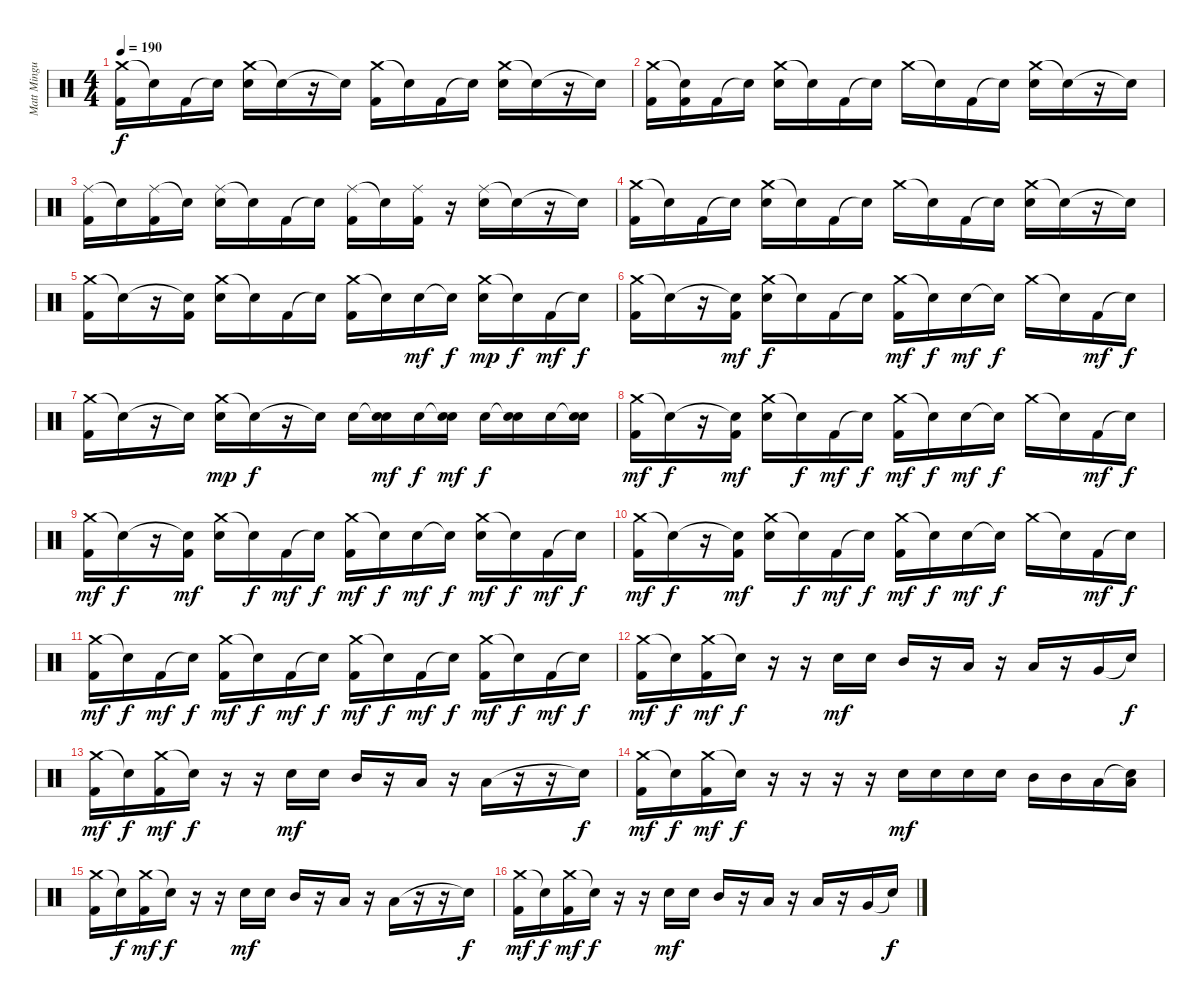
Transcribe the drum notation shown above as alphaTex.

\track ("Matt Mingus" "Matt Mingu") {instrument percussion}
\staff {score}
\articulation defaults
\ts (4 4)
\tempo 190
\clef neutral
\ks c
("Crash medium (hit)" "Kick (hit) 2").16{dy f} "Snare (hit)"{t}.16 "Kick (hit) 2".16 "Snare (hit)"{t}.16 ("Crash medium (hit)" "Electric Snare (hit)").16 "Snare (hit)"{t}.16 r.16 "Snare (hit)"{t}.16 ("Crash medium (hit)" "Kick (hit) 2").16 "Snare (hit)"{t}.16 "Kick (hit) 2".16 "Snare (hit)"{t}.16 ("Crash medium (hit)" "Electric Snare (hit)").16 "Snare (hit)"{t}.16 r.16 "Snare (hit)"{t}.16 |
("Crash medium (hit)" "Kick (hit) 2").16 ("Snare (hit)"{t} "Kick (hit) 2").16 "Kick (hit) 2".16 "Snare (hit)"{t}.16 ("Crash medium (hit)" "Electric Snare (hit)").16 "Snare (hit)"{t}.16 "Kick (hit) 2".16 "Snare (hit)"{t}.16 "Crash medium (hit)".16 "Snare (hit)"{t}.16 "Kick (hit) 2".16 "Snare (hit)"{t}.16 ("Crash medium (hit)" "Electric Snare (hit)").16 "Snare (hit)"{t}.16 r.16 "Snare (hit)"{t}.16 |
("Ride (middle)" "Kick (hit) 2").16 "Snare (hit)"{t}.16 ("Ride (middle)" "Kick (hit) 2").16 "Snare (hit)"{t}.16 ("Ride (middle)" "Electric Snare (hit)").16 "Snare (hit)"{t}.16 "Kick (hit) 2".16 "Snare (hit)"{t}.16 ("Ride (middle)" "Kick (hit) 2").16 "Snare (hit)"{t}.16 ("Ride (middle)" "Kick (hit) 2").16 r.16 ("Ride (middle)" "Electric Snare (hit)").16 "Snare (hit)"{t}.16 r.16 "Snare (hit)"{t}.16 |
("Crash medium (hit)" "Kick (hit) 2").16 "Snare (hit)"{t}.16 "Kick (hit) 2".16 "Snare (hit)"{t}.16 ("Crash medium (hit)" "Electric Snare (hit)").16 "Snare (hit)"{t}.16 "Kick (hit) 2".16 "Snare (hit)"{t}.16 "Crash medium (hit)".16 "Snare (hit)"{t}.16 "Kick (hit) 2".16 "Snare (hit)"{t}.16 ("Crash medium (hit)" "Electric Snare (hit)").16 "Snare (hit)"{t}.16 r.16 "Snare (hit)"{t}.16 |
("Crash medium (hit)" "Kick (hit) 2").16 "Snare (hit)"{t}.16 r.16 ("Snare (hit)"{t} "Kick (hit) 2").16 ("Crash medium (hit)" "Electric Snare (hit)").16 "Snare (hit)"{t}.16 "Kick (hit) 2".16 "Snare (hit)"{t}.16 ("Crash medium (hit)" "Kick (hit) 2").16 "Snare (hit)"{t}.16 "Electric Snare (hit)".16{dy mf} "Snare (hit)"{t}.16{dy f} ("Crash medium (hit)" "Electric Snare (hit)").16{dy mp} "Snare (hit)"{t}.16{dy f} "Kick (hit) 2".16{dy mf} "Snare (hit)"{t}.16{dy f} |
("Crash medium (hit)" "Kick (hit) 2").16 "Snare (hit)"{t}.16 r.16 ("Snare (hit)"{t} "Kick (hit) 2").16{dy mf} ("Crash medium (hit)" "Electric Snare (hit)").16{dy f} "Snare (hit)"{t}.16 "Kick (hit) 2".16 "Snare (hit)"{t}.16 ("Crash medium (hit)" "Kick (hit) 2").16{dy mf} "Snare (hit)"{t}.16{dy f} "Electric Snare (hit)".16{dy mf} "Snare (hit)"{t}.16{dy f} "Crash medium (hit)".16 "Snare (hit)"{t}.16 "Kick (hit) 2".16{dy mf} "Snare (hit)"{t}.16{dy f} |
("Crash medium (hit)" "Kick (hit) 2").16 "Snare (hit)"{t}.16 r.16 "Snare (hit)"{t}.16 ("Crash medium (hit)" "Electric Snare (hit)").16{dy mp} "Snare (hit)"{t}.16{dy f} r.16 "Snare (hit)"{t}.16 "Electric Snare (hit)".16 ("Snare (hit)"{t} "Electric Snare (hit)").16{dy mf} "Electric Snare (hit)".16{dy f} ("Snare (hit)"{t} "Electric Snare (hit)").16{dy mf} "Electric Snare (hit)".16{dy f} ("Snare (hit)"{t} "Electric Snare (hit)").16 "Electric Snare (hit)".16 ("Snare (hit)"{t} "Electric Snare (hit)").16 |
("Crash medium (hit)" "Kick (hit) 2").16{dy mf} "Snare (hit)"{t}.16{dy f} r.16 ("Snare (hit)"{t} "Kick (hit) 2").16{dy mf} ("Crash medium (hit)" "Electric Snare (hit)").16 "Snare (hit)"{t}.16{dy f} "Kick (hit) 2".16{dy mf} "Snare (hit)"{t}.16{dy f} ("Crash medium (hit)" "Kick (hit) 2").16{dy mf} "Snare (hit)"{t}.16{dy f} "Electric Snare (hit)".16{dy mf} "Snare (hit)"{t}.16{dy f} "Crash medium (hit)".16 "Snare (hit)"{t}.16 "Kick (hit) 2".16{dy mf} "Snare (hit)"{t}.16{dy f} |
("Crash medium (hit)" "Kick (hit) 2").16{dy mf} "Snare (hit)"{t}.16{dy f} r.16 ("Snare (hit)"{t} "Kick (hit) 2").16{dy mf} ("Crash medium (hit)" "Electric Snare (hit)").16 "Snare (hit)"{t}.16{dy f} "Kick (hit) 2".16{dy mf} "Snare (hit)"{t}.16{dy f} ("Crash medium (hit)" "Kick (hit) 2").16{dy mf} "Snare (hit)"{t}.16{dy f} "Electric Snare (hit)".16{dy mf} "Snare (hit)"{t}.16{dy f} ("Crash medium (hit)" "Electric Snare (hit)").16{dy mf} "Snare (hit)"{t}.16{dy f} "Kick (hit) 2".16{dy mf} "Snare (hit)"{t}.16{dy f} |
("Crash medium (hit)" "Kick (hit) 2").16{dy mf} "Snare (hit)"{t}.16{dy f} r.16 ("Snare (hit)"{t} "Kick (hit) 2").16{dy mf} ("Crash medium (hit)" "Electric Snare (hit)").16 "Snare (hit)"{t}.16{dy f} "Kick (hit) 2".16{dy mf} "Snare (hit)"{t}.16{dy f} ("Crash medium (hit)" "Kick (hit) 2").16{dy mf} "Snare (hit)"{t}.16{dy f} "Electric Snare (hit)".16{dy mf} "Snare (hit)"{t}.16{dy f} "Crash medium (hit)".16 "Snare (hit)"{t}.16 "Kick (hit) 2".16{dy mf} "Snare (hit)"{t}.16{dy f} |
("Crash medium (hit)" "Kick (hit) 2").16{dy mf} "Snare (hit)"{t}.16{dy f} "Kick (hit) 2".16{dy mf} "Snare (hit)"{t}.16{dy f} ("Crash medium (hit)" "Kick (hit) 2").16{dy mf} "Snare (hit)"{t}.16{dy f} "Kick (hit) 2".16{dy mf} "Snare (hit)"{t}.16{dy f} ("Crash medium (hit)" "Kick (hit) 2").16{dy mf} "Snare (hit)"{t}.16{dy f} "Kick (hit) 2".16{dy mf} "Snare (hit)"{t}.16{dy f} ("Crash medium (hit)" "Kick (hit) 2").16{dy mf} "Snare (hit)"{t}.16{dy f} "Kick (hit) 2".16{dy mf} "Snare (hit)"{t}.16{dy f} |
("Crash medium (hit)" "Kick (hit) 2").16{dy mf} "Snare (hit)"{t}.16{dy f} ("Crash medium (hit)" "Kick (hit) 2").16{dy mf} "Snare (hit)"{t}.16{dy f} r.16 r.16 "Electric Snare (hit)".16{dy mf} "Electric Snare (hit)".16 "Mid Tom (hit)".16 r.16 "Low Tom (hit)".16 r.16 "Low Tom (hit)".16 r.16 "Very Low Tom (hit)".16 "Snare (hit)"{t}.16{dy f} |
("Crash medium (hit)" "Kick (hit) 2").16{dy mf} "Snare (hit)"{t}.16{dy f} ("Crash medium (hit)" "Kick (hit) 2").16{dy mf} "Snare (hit)"{t}.16{dy f} r.16 r.16 "Electric Snare (hit)".16{dy mf} "Electric Snare (hit)".16 "Mid Tom (hit)".16 r.16 "Low Tom (hit)".16 r.16 "Low Tom (hit)".16 r.16 r.16 "Snare (hit)"{t}.16{dy f} |
("Crash medium (hit)" "Kick (hit) 2").16{dy mf} "Snare (hit)"{t}.16{dy f} ("Crash medium (hit)" "Kick (hit) 2").16{dy mf} "Snare (hit)"{t}.16{dy f} r.16 r.16 r.16 r.16 "Electric Snare (hit)".16{dy mf} "Electric Snare (hit)".16 "Electric Snare (hit)".16 "Electric Snare (hit)".16 "Mid Tom (hit)".16 "Mid Tom (hit)".16 "Low Tom (hit)".16 ("Snare (hit)"{t} "Low Tom (hit)").16 |
("Crash medium (hit)" "Kick (hit) 2").16 "Snare (hit)"{t}.16{dy f} ("Crash medium (hit)" "Kick (hit) 2").16{dy mf} "Snare (hit)"{t}.16{dy f} r.16 r.16 "Electric Snare (hit)".16{dy mf} "Electric Snare (hit)".16 "Mid Tom (hit)".16 r.16 "Low Tom (hit)".16 r.16 "Low Tom (hit)".16 r.16 r.16 "Snare (hit)"{t}.16{dy f} |
("Crash medium (hit)" "Kick (hit) 2").16{dy mf} "Snare (hit)"{t}.16{dy f} ("Crash medium (hit)" "Kick (hit) 2").16{dy mf} "Snare (hit)"{t}.16{dy f} r.16 r.16 "Electric Snare (hit)".16{dy mf} "Electric Snare (hit)".16 "Mid Tom (hit)".16 r.16 "Low Tom (hit)".16 r.16 "Low Tom (hit)".16 r.16 "Very Low Tom (hit)".16 "Snare (hit)"{t}.16{dy f}
